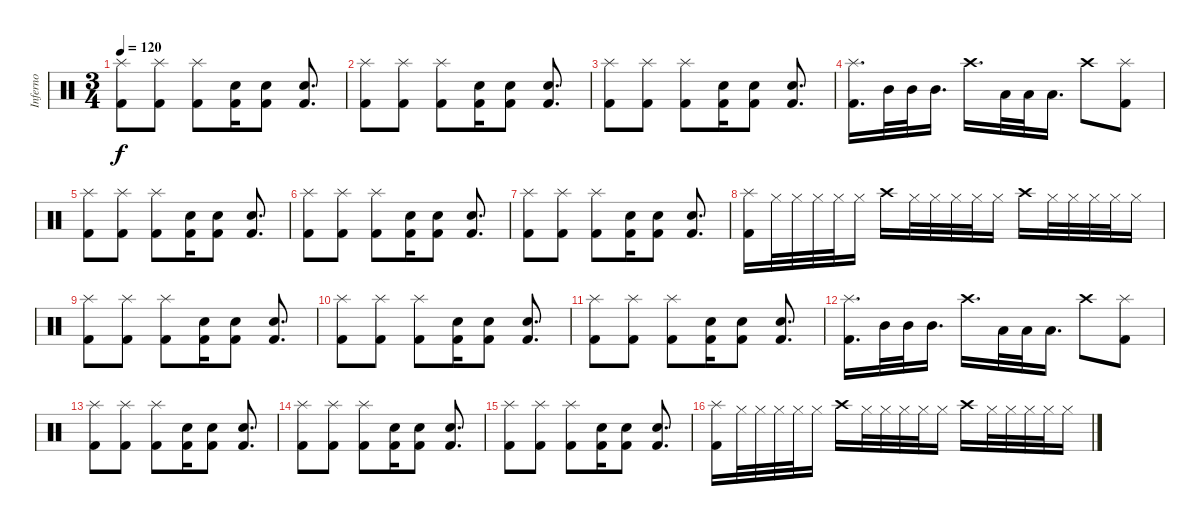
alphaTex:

\track ("Inferno" "Inferno") {instrument percussion}
\staff {score}
\articulation defaults
\ts (3 4)
\tempo 120
\clef neutral
\ks c
("Splash (hit)" "Kick (hit) 2").8{dy f} ("Splash (hit)" "Kick (hit) 2").8 ("Splash (hit)" "Kick (hit) 2").8 ("Electric Snare (hit)" "Kick (hit) 2").16 ("Electric Snare (hit)" "Kick (hit) 2").8 ("Electric Snare (hit)" "Kick (hit) 2").8{d} |
("Splash (hit)" "Kick (hit) 2").8 ("Splash (hit)" "Kick (hit) 2").8 ("Splash (hit)" "Kick (hit) 2").8 ("Electric Snare (hit)" "Kick (hit) 2").16 ("Electric Snare (hit)" "Kick (hit) 2").8 ("Electric Snare (hit)" "Kick (hit) 2").8{d} |
("Splash (hit)" "Kick (hit) 2").8 ("Splash (hit)" "Kick (hit) 2").8 ("Splash (hit)" "Kick (hit) 2").8 ("Electric Snare (hit)" "Kick (hit) 2").16 ("Electric Snare (hit)" "Kick (hit) 2").8 ("Electric Snare (hit)" "Kick (hit) 2").8{d} |
("Splash (hit)" "Kick (hit) 2").16{d} "Mid Tom (hit)".32 "Mid Tom (hit)".32 "Mid Tom (hit)".16{d} "Crash high (hit)".16{d} "Low Tom (hit)".32 "Low Tom (hit)".32 "Low Tom (hit)".16{d} "Crash high (hit)".8 ("Splash (hit)" "Kick (hit) 2").8 |
("Splash (hit)" "Kick (hit) 2").8 ("Splash (hit)" "Kick (hit) 2").8 ("Splash (hit)" "Kick (hit) 2").8 ("Electric Snare (hit)" "Kick (hit) 2").16 ("Electric Snare (hit)" "Kick (hit) 2").8 ("Electric Snare (hit)" "Kick (hit) 2").8{d} |
("Splash (hit)" "Kick (hit) 2").8 ("Splash (hit)" "Kick (hit) 2").8 ("Splash (hit)" "Kick (hit) 2").8 ("Electric Snare (hit)" "Kick (hit) 2").16 ("Electric Snare (hit)" "Kick (hit) 2").8 ("Electric Snare (hit)" "Kick (hit) 2").8{d} |
("Splash (hit)" "Kick (hit) 2").8 ("Splash (hit)" "Kick (hit) 2").8 ("Splash (hit)" "Kick (hit) 2").8 ("Electric Snare (hit)" "Kick (hit) 2").16 ("Electric Snare (hit)" "Kick (hit) 2").8 ("Electric Snare (hit)" "Kick (hit) 2").8{d} |
("Splash (hit)" "Kick (hit) 2").16 "Hi-Hat (closed)".32 "Hi-Hat (closed)".32 "Hi-Hat (closed)".32 "Hi-Hat (closed)".32 "Hi-Hat (closed)".16 "Crash high (hit)".16 "Hi-Hat (closed)".32 "Hi-Hat (closed)".32 "Hi-Hat (closed)".32 "Hi-Hat (closed)".32 "Hi-Hat (closed)".16 "Crash high (hit)".16 "Hi-Hat (closed)".32 "Hi-Hat (closed)".32 "Hi-Hat (closed)".32 "Hi-Hat (closed)".32 "Hi-Hat (closed)".16 |
("Splash (hit)" "Kick (hit) 2").8 ("Splash (hit)" "Kick (hit) 2").8 ("Splash (hit)" "Kick (hit) 2").8 ("Electric Snare (hit)" "Kick (hit) 2").16 ("Electric Snare (hit)" "Kick (hit) 2").8 ("Electric Snare (hit)" "Kick (hit) 2").8{d} |
("Splash (hit)" "Kick (hit) 2").8 ("Splash (hit)" "Kick (hit) 2").8 ("Splash (hit)" "Kick (hit) 2").8 ("Electric Snare (hit)" "Kick (hit) 2").16 ("Electric Snare (hit)" "Kick (hit) 2").8 ("Electric Snare (hit)" "Kick (hit) 2").8{d} |
("Splash (hit)" "Kick (hit) 2").8 ("Splash (hit)" "Kick (hit) 2").8 ("Splash (hit)" "Kick (hit) 2").8 ("Electric Snare (hit)" "Kick (hit) 2").16 ("Electric Snare (hit)" "Kick (hit) 2").8 ("Electric Snare (hit)" "Kick (hit) 2").8{d} |
("Splash (hit)" "Kick (hit) 2").16{d} "Mid Tom (hit)".32 "Mid Tom (hit)".32 "Mid Tom (hit)".16{d} "Crash high (hit)".16{d} "Low Tom (hit)".32 "Low Tom (hit)".32 "Low Tom (hit)".16{d} "Crash high (hit)".8 ("Splash (hit)" "Kick (hit) 2").8 |
("Splash (hit)" "Kick (hit) 2").8 ("Splash (hit)" "Kick (hit) 2").8 ("Splash (hit)" "Kick (hit) 2").8 ("Electric Snare (hit)" "Kick (hit) 2").16 ("Electric Snare (hit)" "Kick (hit) 2").8 ("Electric Snare (hit)" "Kick (hit) 2").8{d} |
("Splash (hit)" "Kick (hit) 2").8 ("Splash (hit)" "Kick (hit) 2").8 ("Splash (hit)" "Kick (hit) 2").8 ("Electric Snare (hit)" "Kick (hit) 2").16 ("Electric Snare (hit)" "Kick (hit) 2").8 ("Electric Snare (hit)" "Kick (hit) 2").8{d} |
("Splash (hit)" "Kick (hit) 2").8 ("Splash (hit)" "Kick (hit) 2").8 ("Splash (hit)" "Kick (hit) 2").8 ("Electric Snare (hit)" "Kick (hit) 2").16 ("Electric Snare (hit)" "Kick (hit) 2").8 ("Electric Snare (hit)" "Kick (hit) 2").8{d} |
("Splash (hit)" "Kick (hit) 2").16 "Hi-Hat (closed)".32 "Hi-Hat (closed)".32 "Hi-Hat (closed)".32 "Hi-Hat (closed)".32 "Hi-Hat (closed)".16 "Crash high (hit)".16 "Hi-Hat (closed)".32 "Hi-Hat (closed)".32 "Hi-Hat (closed)".32 "Hi-Hat (closed)".32 "Hi-Hat (closed)".16 "Crash high (hit)".16 "Hi-Hat (closed)".32 "Hi-Hat (closed)".32 "Hi-Hat (closed)".32 "Hi-Hat (closed)".32 "Hi-Hat (closed)".16
